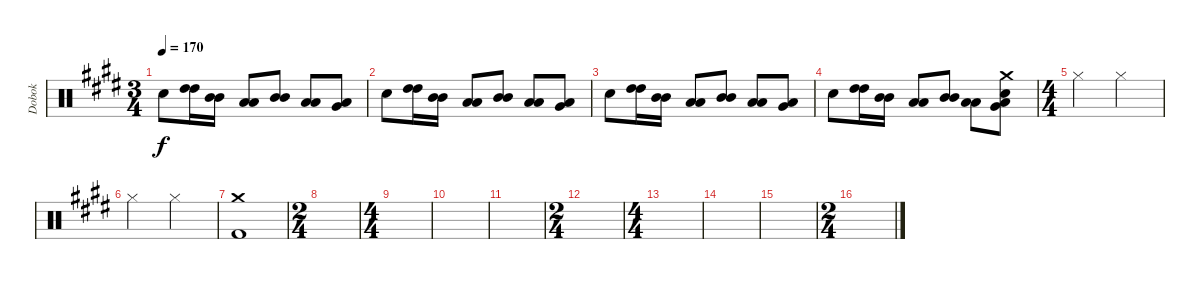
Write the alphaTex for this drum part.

\track ("Dobok" "Dobok") {instrument percussion}
\staff {score}
\articulation defaults
\ts (3 4)
\tempo 170
\clef neutral
\ks c#minor "Snare (hit) 2".8{dy f}
("High Tom (hit)" "High Tom (hit)").16 ("Mid Tom (hit)" "Mid Tom (hit)").16 ("Low Tom (hit)" "Low Tom (hit)").8 ("Mid Tom (hit)" "Mid Tom (hit)").8 ("Low Tom (hit)" "Low Tom (hit)").8 ("Low Floor Tom (hit)" "Very Low Tom (hit)").8 |
"Snare (hit) 2".8 ("High Tom (hit)" "High Tom (hit)").16 ("Mid Tom (hit)" "Mid Tom (hit)").16 ("Low Tom (hit)" "Low Tom (hit)").8 ("Mid Tom (hit)" "Mid Tom (hit)").8 ("Low Tom (hit)" "Low Tom (hit)").8 ("Low Floor Tom (hit)" "Very Low Tom (hit)").8 |
"Snare (hit) 2".8 ("High Tom (hit)" "High Tom (hit)").16 ("Mid Tom (hit)" "Mid Tom (hit)").16 ("Low Tom (hit)" "Low Tom (hit)").8 ("Mid Tom (hit)" "Mid Tom (hit)").8 ("Low Tom (hit)" "Low Tom (hit)").8 ("Low Floor Tom (hit)" "Very Low Tom (hit)").8 |
"Snare (hit) 2".8 ("High Tom (hit)" "High Tom (hit)").16 ("Mid Tom (hit)" "Mid Tom (hit)").16 ("Low Tom (hit)" "Low Tom (hit)").8 ("Mid Tom (hit)" "Mid Tom (hit)").8 ("Low Tom (hit)" "Low Tom (hit)").8 ("Crash medium (hit)" "Snare (hit) 2" "Low Floor Tom (hit)" "Very Low Tom (hit)").8 |
\ts (4 4)
"Hi-Hat (closed)".2 "Hi-Hat (closed)".2 |
"Hi-Hat (closed)".2 "Hi-Hat (closed)".2 |
("Crash medium (hit)" "Kick (hit) 2").1 |
\ts (2 4)
|
\ts (4 4)
|
|
|
\ts (2 4)
|
\ts (4 4)
|
|
|
\ts (2 4)
